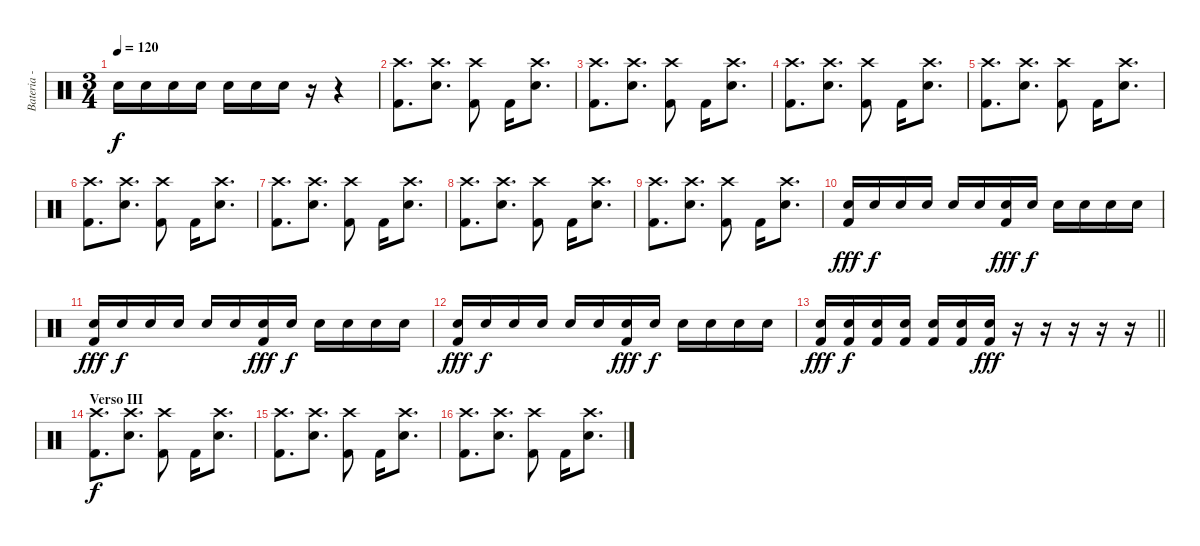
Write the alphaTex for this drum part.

\track ("Bateria - Larzon" "Bateria - ") {instrument percussion}
\staff {score}
\articulation defaults
\ts (3 4)
\tempo 120
\clef neutral
\ks c "Snare (hit) 2".16{dy f} "Snare (hit) 2".16 "Snare (hit) 2".16 "Snare (hit) 2".16 "Snare (hit) 2".16 "Snare (hit) 2".16 "Snare (hit) 2".16
r.16 r.4 |
("Kick (hit) 2" "Crash high (hit)").8{d} ("Snare (hit) 2" "Crash high (hit)").8{d} ("Kick (hit) 2" "Crash high (hit)").8 "Kick (hit) 2".16 ("Snare (hit) 2" "Crash high (hit)").8{d} |
("Kick (hit) 2" "Crash high (hit)").8{d} ("Snare (hit) 2" "Crash high (hit)").8{d} ("Kick (hit) 2" "Crash high (hit)").8 "Kick (hit) 2".16 ("Snare (hit) 2" "Crash high (hit)").8{d} |
("Kick (hit) 2" "Crash high (hit)").8{d} ("Snare (hit) 2" "Crash high (hit)").8{d} ("Kick (hit) 2" "Crash high (hit)").8 "Kick (hit) 2".16 ("Snare (hit) 2" "Crash high (hit)").8{d} |
("Kick (hit) 2" "Crash high (hit)").8{d} ("Snare (hit) 2" "Crash high (hit)").8{d} ("Kick (hit) 2" "Crash high (hit)").8 "Kick (hit) 2".16 ("Snare (hit) 2" "Crash high (hit)").8{d} |
("Kick (hit) 2" "Crash high (hit)").8{d} ("Snare (hit) 2" "Crash high (hit)").8{d} ("Kick (hit) 2" "Crash high (hit)").8 "Kick (hit) 2".16 ("Snare (hit) 2" "Crash high (hit)").8{d} |
("Kick (hit) 2" "Crash high (hit)").8{d} ("Snare (hit) 2" "Crash high (hit)").8{d} ("Kick (hit) 2" "Crash high (hit)").8 "Kick (hit) 2".16 ("Snare (hit) 2" "Crash high (hit)").8{d} |
("Kick (hit) 2" "Crash high (hit)").8{d} ("Snare (hit) 2" "Crash high (hit)").8{d} ("Kick (hit) 2" "Crash high (hit)").8 "Kick (hit) 2".16 ("Snare (hit) 2" "Crash high (hit)").8{d} |
("Kick (hit) 2" "Crash high (hit)").8{d} ("Snare (hit) 2" "Crash high (hit)").8{d} ("Kick (hit) 2" "Crash high (hit)").8 "Kick (hit) 2".16 ("Snare (hit) 2" "Crash high (hit)").8{d} |
("Kick (hit) 2" "Snare (hit) 2").16{dy fff} "Snare (hit) 2".16{dy f} "Snare (hit) 2".16 "Snare (hit) 2".16 "Snare (hit) 2".16 "Snare (hit) 2".16 ("Kick (hit) 2" "Snare (hit) 2").16{dy fff} "Snare (hit) 2".16{dy f} "Snare (hit) 2".16 "Snare (hit) 2".16 "Snare (hit) 2".16 "Snare (hit) 2".16 |
("Kick (hit) 2" "Snare (hit) 2").16{dy fff} "Snare (hit) 2".16{dy f} "Snare (hit) 2".16 "Snare (hit) 2".16 "Snare (hit) 2".16 "Snare (hit) 2".16 ("Kick (hit) 2" "Snare (hit) 2").16{dy fff} "Snare (hit) 2".16{dy f} "Snare (hit) 2".16 "Snare (hit) 2".16 "Snare (hit) 2".16 "Snare (hit) 2".16 |
("Kick (hit) 2" "Snare (hit) 2").16{dy fff} "Snare (hit) 2".16{dy f} "Snare (hit) 2".16 "Snare (hit) 2".16 "Snare (hit) 2".16 "Snare (hit) 2".16 ("Kick (hit) 2" "Snare (hit) 2").16{dy fff} "Snare (hit) 2".16{dy f} "Snare (hit) 2".16 "Snare (hit) 2".16 "Snare (hit) 2".16 "Snare (hit) 2".16 |
\barLineRight lightlight
("Kick (hit) 2" "Snare (hit) 2").16{dy fff volume 16} ("Kick (hit) 2" "Snare (hit) 2").16{dy f} ("Kick (hit) 2" "Snare (hit) 2").16 ("Kick (hit) 2" "Snare (hit) 2").16 ("Kick (hit) 2" "Snare (hit) 2").16 ("Kick (hit) 2" "Snare (hit) 2").16 ("Kick (hit) 2" "Snare (hit) 2").16{dy fff} r.16 r.16 r.16 r.16 r.16 |
\section ("" "Verso III")
("Kick (hit) 2" "Crash high (hit)").8{d dy f} ("Snare (hit) 2" "Crash high (hit)").8{d} ("Kick (hit) 2" "Crash high (hit)").8 "Kick (hit) 2".16 ("Snare (hit) 2" "Crash high (hit)").8{d} |
("Kick (hit) 2" "Crash high (hit)").8{d} ("Snare (hit) 2" "Crash high (hit)").8{d} ("Kick (hit) 2" "Crash high (hit)").8 "Kick (hit) 2".16 ("Snare (hit) 2" "Crash high (hit)").8{d} |
("Kick (hit) 2" "Crash high (hit)").8{d} ("Snare (hit) 2" "Crash high (hit)").8{d} ("Kick (hit) 2" "Crash high (hit)").8 "Kick (hit) 2".16 ("Snare (hit) 2" "Crash high (hit)").8{d}
